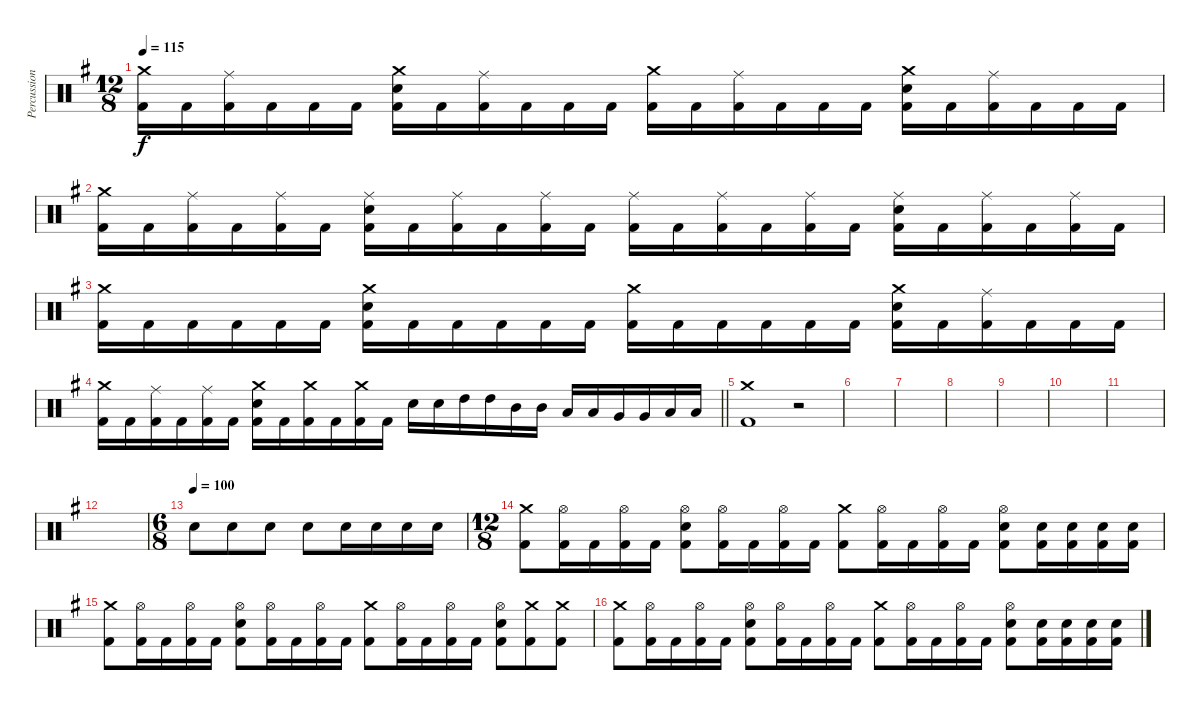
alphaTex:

\track ("Percussion" "Percussion") {instrument percussion}
\staff {score}
\articulation defaults
\ts (12 8)
\tempo 115
\clef neutral
\ks g
("Crash medium (hit)" "Kick (hit) 2").16{dy f} "Kick (hit) 2".16 ("Ride (middle)" "Kick (hit) 2").16 "Kick (hit) 2".16 "Kick (hit) 2".16 "Kick (hit) 2".16 ("Crash medium (hit)" "Snare (hit) 2" "Kick (hit) 2").16 "Kick (hit) 2".16 ("Ride (middle)" "Kick (hit) 2").16 "Kick (hit) 2".16 "Kick (hit) 2".16 "Kick (hit) 2".16 ("Crash medium (hit)" "Kick (hit) 2").16 "Kick (hit) 2".16 ("Ride (middle)" "Kick (hit) 2").16 "Kick (hit) 2".16 "Kick (hit) 2".16 "Kick (hit) 2".16 ("Crash medium (hit)" "Snare (hit) 2" "Kick (hit) 2").16 "Kick (hit) 2".16 ("Ride (middle)" "Kick (hit) 2").16 "Kick (hit) 2".16 "Kick (hit) 2".16 "Kick (hit) 2".16 |
("Crash medium (hit)" "Kick (hit) 2").16 "Kick (hit) 2".16 ("Ride (middle)" "Kick (hit) 2").16 "Kick (hit) 2".16 ("Ride (middle)" "Kick (hit) 2").16 "Kick (hit) 2".16 ("Ride (middle)" "Snare (hit) 2" "Kick (hit) 2").16 "Kick (hit) 2".16 ("Ride (middle)" "Kick (hit) 2").16 "Kick (hit) 2".16 ("Ride (middle)" "Kick (hit) 2").16 "Kick (hit) 2".16 ("Ride (middle)" "Kick (hit) 2").16 "Kick (hit) 2".16 ("Ride (middle)" "Kick (hit) 2").16 "Kick (hit) 2".16 ("Ride (middle)" "Kick (hit) 2").16 "Kick (hit) 2".16 ("Ride (middle)" "Snare (hit) 2" "Kick (hit) 2").16 "Kick (hit) 2".16 ("Ride (middle)" "Kick (hit) 2").16 "Kick (hit) 2".16 ("Ride (middle)" "Kick (hit) 2").16 "Kick (hit) 2".16 |
("Crash medium (hit)" "Kick (hit) 2").16 "Kick (hit) 2".16 "Kick (hit) 2".16 "Kick (hit) 2".16 "Kick (hit) 2".16 "Kick (hit) 2".16 ("Crash medium (hit)" "Snare (hit) 2" "Kick (hit) 2").16 "Kick (hit) 2".16 "Kick (hit) 2".16 "Kick (hit) 2".16 "Kick (hit) 2".16 "Kick (hit) 2".16 ("Crash medium (hit)" "Kick (hit) 2").16 "Kick (hit) 2".16 "Kick (hit) 2".16 "Kick (hit) 2".16 "Kick (hit) 2".16 "Kick (hit) 2".16 ("Crash medium (hit)" "Snare (hit) 2" "Kick (hit) 2").16 "Kick (hit) 2".16 ("Ride (middle)" "Kick (hit) 2").16 "Kick (hit) 2".16 "Kick (hit) 2".16 "Kick (hit) 2".16 |
\barLineRight lightlight
("Crash medium (hit)" "Kick (hit) 2").16 "Kick (hit) 2".16 ("Ride (middle)" "Kick (hit) 2").16 "Kick (hit) 2".16 ("Ride (middle)" "Kick (hit) 2").16 "Kick (hit) 2".16 ("Crash medium (hit)" "Snare (hit) 2" "Kick (hit) 2").16 "Kick (hit) 2".16 ("Crash medium (hit)" "Kick (hit) 2").16 "Kick (hit) 2".16 ("Crash medium (hit)" "Kick (hit) 2").16 "Kick (hit) 2".16 "Snare (hit) 2".16 "Snare (hit) 2".16 "High Tom (hit)".16 "High Tom (hit)".16 "Mid Tom (hit)".16 "Mid Tom (hit)".16 "Low Tom (hit)".16 "Low Tom (hit)".16 "Very Low Tom (hit)".16 "Very Low Tom (hit)".16 "Low Floor Tom (hit)".16 "Low Floor Tom (hit)".16 |
("Crash medium (hit)" "Kick (hit) 2").1 r.2 |
|
|
|
|
|
|
|
\ts (6 8)
\tempo (100)
"Snare (hit) 2".8 "Snare (hit) 2".8 "Snare (hit) 2".8 "Snare (hit) 2".8 "Snare (hit) 2".16 "Snare (hit) 2".16 "Snare (hit) 2".16 "Snare (hit) 2".16 |
\ts (12 8)
("Crash medium (hit)" "Kick (hit) 2").8 ("Hi-Hat (open)" "Kick (hit) 2").16 "Kick (hit) 2".16 ("Hi-Hat (open)" "Kick (hit) 2").16 "Kick (hit) 2".16 ("Hi-Hat (open)" "Snare (hit) 2" "Kick (hit) 2").8 ("Hi-Hat (open)" "Kick (hit) 2").16 "Kick (hit) 2".16 ("Hi-Hat (open)" "Kick (hit) 2").16 "Kick (hit) 2".16 ("Crash medium (hit)" "Kick (hit) 2").8 ("Hi-Hat (open)" "Kick (hit) 2").16 "Kick (hit) 2".16 ("Hi-Hat (open)" "Kick (hit) 2").16 "Kick (hit) 2".16 ("Hi-Hat (open)" "Snare (hit) 2" "Kick (hit) 2").8 ("Snare (hit) 2" "Kick (hit) 2").16 ("Snare (hit) 2" "Kick (hit) 2").16 ("Snare (hit) 2" "Kick (hit) 2").16 ("Snare (hit) 2" "Kick (hit) 2").16 |
("Crash medium (hit)" "Kick (hit) 2").8 ("Hi-Hat (open)" "Kick (hit) 2").16 "Kick (hit) 2".16 ("Hi-Hat (open)" "Kick (hit) 2").16 "Kick (hit) 2".16 ("Hi-Hat (open)" "Snare (hit) 2" "Kick (hit) 2").8 ("Hi-Hat (open)" "Kick (hit) 2").16 "Kick (hit) 2".16 ("Hi-Hat (open)" "Kick (hit) 2").16 "Kick (hit) 2".16 ("Crash medium (hit)" "Kick (hit) 2").8 ("Hi-Hat (open)" "Kick (hit) 2").16 "Kick (hit) 2".16 ("Hi-Hat (open)" "Kick (hit) 2").16 "Kick (hit) 2".16 ("Hi-Hat (open)" "Snare (hit) 2" "Kick (hit) 2").8 ("Crash medium (hit)" "Kick (hit) 2").8 ("Crash medium (hit)" "Kick (hit) 2").8 |
("Crash medium (hit)" "Kick (hit) 2").8 ("Hi-Hat (open)" "Kick (hit) 2").16 "Kick (hit) 2".16 ("Hi-Hat (open)" "Kick (hit) 2").16 "Kick (hit) 2".16 ("Hi-Hat (open)" "Snare (hit) 2" "Kick (hit) 2").8 ("Hi-Hat (open)" "Kick (hit) 2").16 "Kick (hit) 2".16 ("Hi-Hat (open)" "Kick (hit) 2").16 "Kick (hit) 2".16 ("Crash medium (hit)" "Kick (hit) 2").8 ("Hi-Hat (open)" "Kick (hit) 2").16 "Kick (hit) 2".16 ("Hi-Hat (open)" "Kick (hit) 2").16 "Kick (hit) 2".16 ("Hi-Hat (open)" "Snare (hit) 2" "Kick (hit) 2").8 ("Snare (hit) 2" "Kick (hit) 2").16 ("Snare (hit) 2" "Kick (hit) 2").16 ("Snare (hit) 2" "Kick (hit) 2").16 ("Snare (hit) 2" "Kick (hit) 2").16
